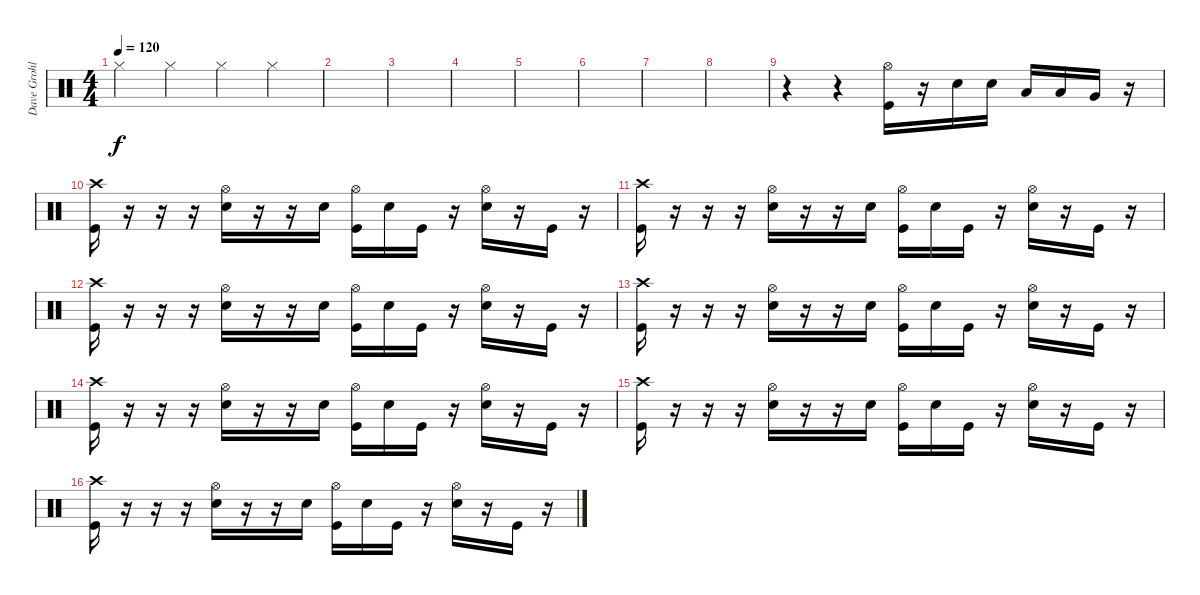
\track ("Dave Grohl (Drums)" "Dave Grohl") {instrument percussion}
\staff {score}
\articulation defaults
\ts (4 4)
\tempo 120
\clef neutral
\ks c "Hi-Hat (closed)".4{dy f} "Hi-Hat (closed)".4 "Hi-Hat (closed)".4 "Hi-Hat (closed)".4
|
|
|
|
|
|
|
|
r.4 r.4 ("Hi-Hat (open)" "Kick (hit)").16 r.16 "Snare (hit) 2".16 "Snare (hit) 2".16 "Low Floor Tom (hit)".16 "Low Floor Tom (hit)".16 "Very Low Tom (hit)".16 r.16 |
("Crash high (hit)" "Kick (hit)").16 r.16 r.16 r.16 ("Hi-Hat (open)" "Snare (hit) 2").16 r.16 r.16 "Snare (hit) 2".16 ("Hi-Hat (open)" "Kick (hit)").16 "Snare (hit) 2".16 "Kick (hit)".16 r.16 ("Hi-Hat (open)" "Snare (hit) 2").16 r.16 "Kick (hit)".16 r.16 |
("Crash high (hit)" "Kick (hit)").16 r.16 r.16 r.16 ("Hi-Hat (open)" "Snare (hit) 2").16 r.16 r.16 "Snare (hit) 2".16 ("Hi-Hat (open)" "Kick (hit)").16 "Snare (hit) 2".16 "Kick (hit)".16 r.16 ("Hi-Hat (open)" "Snare (hit) 2").16 r.16 "Kick (hit)".16 r.16 |
("Crash high (hit)" "Kick (hit)").16 r.16 r.16 r.16 ("Hi-Hat (open)" "Snare (hit) 2").16 r.16 r.16 "Snare (hit) 2".16 ("Hi-Hat (open)" "Kick (hit)").16 "Snare (hit) 2".16 "Kick (hit)".16 r.16 ("Hi-Hat (open)" "Snare (hit) 2").16 r.16 "Kick (hit)".16 r.16 |
("Crash high (hit)" "Kick (hit)").16 r.16 r.16 r.16 ("Hi-Hat (open)" "Snare (hit) 2").16 r.16 r.16 "Snare (hit) 2".16 ("Hi-Hat (open)" "Kick (hit)").16 "Snare (hit) 2".16 "Kick (hit)".16 r.16 ("Hi-Hat (open)" "Snare (hit) 2").16 r.16 "Kick (hit)".16 r.16 |
("Crash high (hit)" "Kick (hit)").16 r.16 r.16 r.16 ("Hi-Hat (open)" "Snare (hit) 2").16 r.16 r.16 "Snare (hit) 2".16 ("Hi-Hat (open)" "Kick (hit)").16 "Snare (hit) 2".16 "Kick (hit)".16 r.16 ("Hi-Hat (open)" "Snare (hit) 2").16 r.16 "Kick (hit)".16 r.16 |
("Crash high (hit)" "Kick (hit)").16 r.16 r.16 r.16 ("Hi-Hat (open)" "Snare (hit) 2").16 r.16 r.16 "Snare (hit) 2".16 ("Hi-Hat (open)" "Kick (hit)").16 "Snare (hit) 2".16 "Kick (hit)".16 r.16 ("Hi-Hat (open)" "Snare (hit) 2").16 r.16 "Kick (hit)".16 r.16 |
("Crash high (hit)" "Kick (hit)").16 r.16 r.16 r.16 ("Hi-Hat (open)" "Snare (hit) 2").16 r.16 r.16 "Snare (hit) 2".16 ("Hi-Hat (open)" "Kick (hit)").16 "Snare (hit) 2".16 "Kick (hit)".16 r.16 ("Hi-Hat (open)" "Snare (hit) 2").16 r.16 "Kick (hit)".16 r.16
